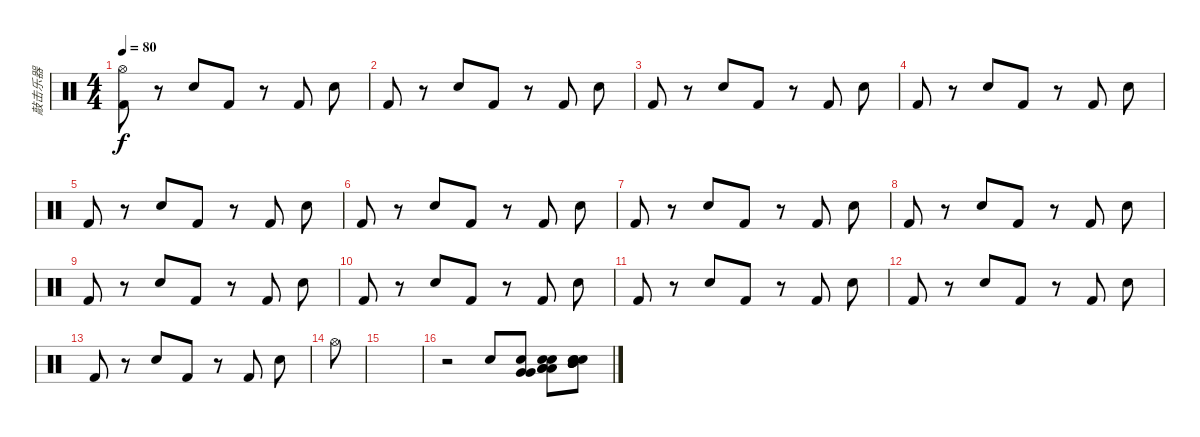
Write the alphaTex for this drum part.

\track ("敲击乐器" "敲击乐器") {instrument percussion}
\staff {score}
\articulation defaults
\ts (4 4)
\tempo 80
\clef neutral
\ks c
("Kick (hit) 2" "Hi-Hat (open)").8{dy f} r.8 "Electric Snare (hit)".8 "Kick (hit) 2".8 r.8 "Kick (hit) 2".8 "Electric Snare (hit)".8 |
"Kick (hit) 2".8 r.8 "Electric Snare (hit)".8 "Kick (hit) 2".8 r.8 "Kick (hit) 2".8 "Electric Snare (hit)".8 |
"Kick (hit) 2".8 r.8 "Electric Snare (hit)".8 "Kick (hit) 2".8 r.8 "Kick (hit) 2".8 "Electric Snare (hit)".8 |
"Kick (hit) 2".8 r.8 "Electric Snare (hit)".8 "Kick (hit) 2".8 r.8 "Kick (hit) 2".8 "Electric Snare (hit)".8 |
"Kick (hit) 2".8 r.8 "Electric Snare (hit)".8 "Kick (hit) 2".8 r.8 "Kick (hit) 2".8 "Electric Snare (hit)".8 |
"Kick (hit) 2".8 r.8 "Electric Snare (hit)".8 "Kick (hit) 2".8 r.8 "Kick (hit) 2".8 "Electric Snare (hit)".8 |
"Kick (hit) 2".8 r.8 "Electric Snare (hit)".8 "Kick (hit) 2".8 r.8 "Kick (hit) 2".8 "Electric Snare (hit)".8 |
"Kick (hit) 2".8 r.8 "Electric Snare (hit)".8 "Kick (hit) 2".8 r.8 "Kick (hit) 2".8 "Electric Snare (hit)".8 |
"Kick (hit) 2".8 r.8 "Electric Snare (hit)".8 "Kick (hit) 2".8 r.8 "Kick (hit) 2".8 "Electric Snare (hit)".8 |
"Kick (hit) 2".8 r.8 "Electric Snare (hit)".8 "Kick (hit) 2".8 r.8 "Kick (hit) 2".8 "Electric Snare (hit)".8 |
"Kick (hit) 2".8 r.8 "Electric Snare (hit)".8 "Kick (hit) 2".8 r.8 "Kick (hit) 2".8 "Electric Snare (hit)".8 |
"Kick (hit) 2".8 r.8 "Electric Snare (hit)".8 "Kick (hit) 2".8 r.8 "Kick (hit) 2".8 "Electric Snare (hit)".8 |
"Kick (hit) 2".8 r.8 "Electric Snare (hit)".8 "Kick (hit) 2".8 r.8 "Kick (hit) 2".8 "Electric Snare (hit)".8 |
"Hi-Hat (open)".8 |
|
r.2 "Electric Snare (hit)".8 ("Very Low Tom (hit)" "Electric Snare (hit)" "Very Low Tom (hit)").8 ("Low Tom (hit)" "Low Tom (hit)" "Electric Snare (hit)" "Low Tom (hit)" "Electric Snare (hit)").8 ("Electric Snare (hit)" "Mid Tom (hit)" "Electric Snare (hit)" "Mid Tom (hit)" "Electric Snare (hit)" "Mid Tom (hit)").8
